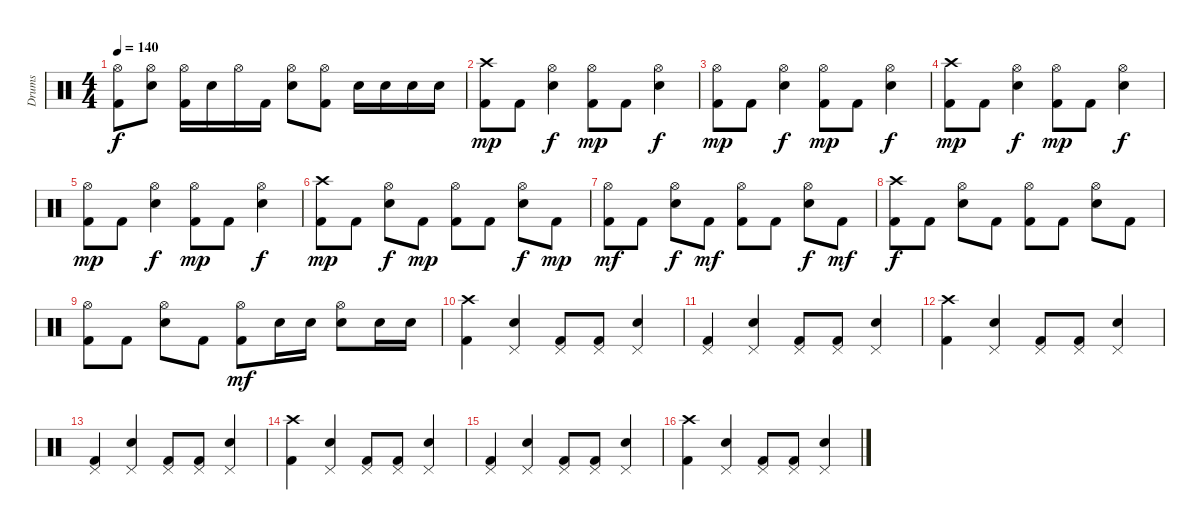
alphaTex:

\track ("Drums" "Drums") {instrument percussion}
\staff {score}
\articulation defaults
\ts (4 4)
\tempo 140
\clef neutral
\ks c
("Hi-Hat (open)" "Kick (hit) 2").8{dy f} ("Hi-Hat (open)" "Snare (hit) 2").8 ("Hi-Hat (open)" "Kick (hit) 2").16 "Snare (hit) 2".16 "Hi-Hat (open)".16 "Kick (hit) 2".16 ("Hi-Hat (open)" "Snare (hit) 2").8 ("Hi-Hat (open)" "Kick (hit) 2").8 "Snare (hit) 2".16 "Snare (hit) 2".16 "Snare (hit) 2".16 "Snare (hit) 2".16 |
("Crash high (hit)" "Kick (hit) 2").8{dy mp} "Kick (hit) 2".8 ("Hi-Hat (open)" "Snare (hit) 2").4{dy f} ("Hi-Hat (open)" "Kick (hit) 2").8{dy mp} "Kick (hit) 2".8 ("Hi-Hat (open)" "Snare (hit) 2").4{dy f} |
("Hi-Hat (open)" "Kick (hit) 2").8{dy mp} "Kick (hit) 2".8 ("Hi-Hat (open)" "Snare (hit) 2").4{dy f} ("Hi-Hat (open)" "Kick (hit) 2").8{dy mp} "Kick (hit) 2".8 ("Hi-Hat (open)" "Snare (hit) 2").4{dy f} |
("Crash high (hit)" "Kick (hit) 2").8{dy mp} "Kick (hit) 2".8 ("Hi-Hat (open)" "Snare (hit) 2").4{dy f} ("Hi-Hat (open)" "Kick (hit) 2").8{dy mp} "Kick (hit) 2".8 ("Hi-Hat (open)" "Snare (hit) 2").4{dy f} |
("Hi-Hat (open)" "Kick (hit) 2").8{dy mp} "Kick (hit) 2".8 ("Hi-Hat (open)" "Snare (hit) 2").4{dy f} ("Hi-Hat (open)" "Kick (hit) 2").8{dy mp} "Kick (hit) 2".8 ("Hi-Hat (open)" "Snare (hit) 2").4{dy f} |
("Crash high (hit)" "Kick (hit) 2").8{dy mp} "Kick (hit) 2".8 ("Hi-Hat (open)" "Snare (hit) 2").8{dy f} "Kick (hit) 2".8{dy mp} ("Hi-Hat (open)" "Kick (hit) 2").8 "Kick (hit) 2".8 ("Hi-Hat (open)" "Snare (hit) 2").8{dy f} "Kick (hit) 2".8{dy mp} |
("Hi-Hat (open)" "Kick (hit) 2").8{dy mf} "Kick (hit) 2".8 ("Hi-Hat (open)" "Snare (hit) 2").8{dy f} "Kick (hit) 2".8{dy mf} ("Hi-Hat (open)" "Kick (hit) 2").8 "Kick (hit) 2".8 ("Hi-Hat (open)" "Snare (hit) 2").8{dy f} "Kick (hit) 2".8{dy mf} |
("Crash high (hit)" "Kick (hit) 2").8{dy f} "Kick (hit) 2".8 ("Hi-Hat (open)" "Snare (hit) 2").8 "Kick (hit) 2".8 ("Hi-Hat (open)" "Kick (hit) 2").8 "Kick (hit) 2".8 ("Hi-Hat (open)" "Snare (hit) 2").8 "Kick (hit) 2".8 |
("Hi-Hat (open)" "Kick (hit) 2").8 "Kick (hit) 2".8 ("Hi-Hat (open)" "Snare (hit) 2").8 "Kick (hit) 2".8 ("Hi-Hat (open)" "Kick (hit) 2").8{dy mf} "Snare (hit) 2".16 "Snare (hit) 2".16 ("Hi-Hat (open)" "Snare (hit) 2").8 "Snare (hit) 2".16 "Snare (hit) 2".16 |
("Crash high (hit)" "Kick (hit) 2").4 ("Pedal Hi-Hat (hit)" "Snare (hit) 2").4 ("Pedal Hi-Hat (hit)" "Kick (hit) 2").8 ("Pedal Hi-Hat (hit)" "Kick (hit) 2").8 ("Pedal Hi-Hat (hit)" "Snare (hit) 2").4 |
("Pedal Hi-Hat (hit)" "Kick (hit) 2").4 ("Pedal Hi-Hat (hit)" "Snare (hit) 2").4 ("Pedal Hi-Hat (hit)" "Kick (hit) 2").8 ("Pedal Hi-Hat (hit)" "Kick (hit) 2").8 ("Pedal Hi-Hat (hit)" "Snare (hit) 2").4 |
("Crash high (hit)" "Kick (hit) 2").4 ("Pedal Hi-Hat (hit)" "Snare (hit) 2").4 ("Pedal Hi-Hat (hit)" "Kick (hit) 2").8 ("Pedal Hi-Hat (hit)" "Kick (hit) 2").8 ("Pedal Hi-Hat (hit)" "Snare (hit) 2").4 |
("Pedal Hi-Hat (hit)" "Kick (hit) 2").4 ("Pedal Hi-Hat (hit)" "Snare (hit) 2").4 ("Pedal Hi-Hat (hit)" "Kick (hit) 2").8 ("Pedal Hi-Hat (hit)" "Kick (hit) 2").8 ("Pedal Hi-Hat (hit)" "Snare (hit) 2").4 |
("Crash high (hit)" "Kick (hit) 2").4 ("Pedal Hi-Hat (hit)" "Snare (hit) 2").4 ("Pedal Hi-Hat (hit)" "Kick (hit) 2").8 ("Pedal Hi-Hat (hit)" "Kick (hit) 2").8 ("Pedal Hi-Hat (hit)" "Snare (hit) 2").4 |
("Pedal Hi-Hat (hit)" "Kick (hit) 2").4 ("Pedal Hi-Hat (hit)" "Snare (hit) 2").4 ("Pedal Hi-Hat (hit)" "Kick (hit) 2").8 ("Pedal Hi-Hat (hit)" "Kick (hit) 2").8 ("Pedal Hi-Hat (hit)" "Snare (hit) 2").4 |
("Crash high (hit)" "Kick (hit) 2").4 ("Pedal Hi-Hat (hit)" "Snare (hit) 2").4 ("Pedal Hi-Hat (hit)" "Kick (hit) 2").8 ("Pedal Hi-Hat (hit)" "Kick (hit) 2").8 ("Pedal Hi-Hat (hit)" "Snare (hit) 2").4
